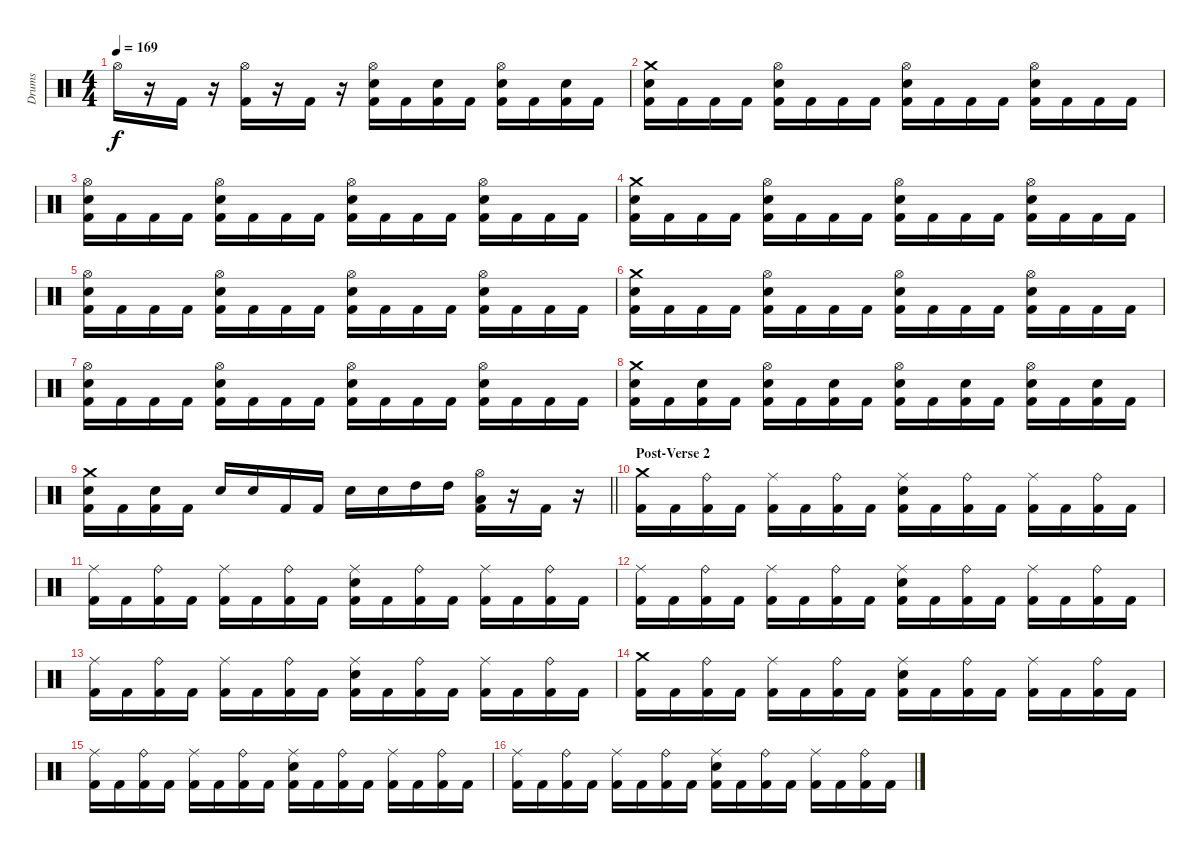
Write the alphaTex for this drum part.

\track ("Drums" "Drums") {instrument percussion}
\staff {score}
\articulation defaults
\ts (4 4)
\tempo 169
\clef neutral
\ks c "Hi-Hat (open)".16{dy f}
r.16 "Kick (hit) 2".16 r.16 ("Hi-Hat (open)" "Kick (hit) 2").16 r.16 "Kick (hit) 2".16 r.16 ("Hi-Hat (open)" "Snare (hit) 2" "Kick (hit) 2").16 "Kick (hit) 2".16 ("Snare (hit) 2" "Kick (hit) 2").16 "Kick (hit) 2".16 ("Hi-Hat (open)" "Snare (hit) 2" "Kick (hit) 2").16 "Kick (hit) 2".16 ("Snare (hit) 2" "Kick (hit) 2").16 "Kick (hit) 2".16 |
("Crash medium (hit)" "Snare (hit) 2" "Kick (hit) 2").16 "Kick (hit) 2".16 "Kick (hit) 2".16 "Kick (hit) 2".16 ("Hi-Hat (open)" "Snare (hit) 2" "Kick (hit) 2").16 "Kick (hit) 2".16 "Kick (hit) 2".16 "Kick (hit) 2".16 ("Hi-Hat (open)" "Snare (hit) 2" "Kick (hit) 2").16 "Kick (hit) 2".16 "Kick (hit) 2".16 "Kick (hit) 2".16 ("Hi-Hat (open)" "Snare (hit) 2" "Kick (hit) 2").16 "Kick (hit) 2".16 "Kick (hit) 2".16 "Kick (hit) 2".16 |
("Hi-Hat (open)" "Snare (hit) 2" "Kick (hit) 2").16 "Kick (hit) 2".16 "Kick (hit) 2".16 "Kick (hit) 2".16 ("Hi-Hat (open)" "Snare (hit) 2" "Kick (hit) 2").16 "Kick (hit) 2".16 "Kick (hit) 2".16 "Kick (hit) 2".16 ("Hi-Hat (open)" "Snare (hit) 2" "Kick (hit) 2").16 "Kick (hit) 2".16 "Kick (hit) 2".16 "Kick (hit) 2".16 ("Hi-Hat (open)" "Snare (hit) 2" "Kick (hit) 2").16 "Kick (hit) 2".16 "Kick (hit) 2".16 "Kick (hit) 2".16 |
("Crash medium (hit)" "Snare (hit) 2" "Kick (hit) 2").16 "Kick (hit) 2".16 "Kick (hit) 2".16 "Kick (hit) 2".16 ("Hi-Hat (open)" "Snare (hit) 2" "Kick (hit) 2").16 "Kick (hit) 2".16 "Kick (hit) 2".16 "Kick (hit) 2".16 ("Hi-Hat (open)" "Snare (hit) 2" "Kick (hit) 2").16 "Kick (hit) 2".16 "Kick (hit) 2".16 "Kick (hit) 2".16 ("Hi-Hat (open)" "Snare (hit) 2" "Kick (hit) 2").16 "Kick (hit) 2".16 "Kick (hit) 2".16 "Kick (hit) 2".16 |
("Hi-Hat (open)" "Snare (hit) 2" "Kick (hit) 2").16 "Kick (hit) 2".16 "Kick (hit) 2".16 "Kick (hit) 2".16 ("Hi-Hat (open)" "Snare (hit) 2" "Kick (hit) 2").16 "Kick (hit) 2".16 "Kick (hit) 2".16 "Kick (hit) 2".16 ("Hi-Hat (open)" "Snare (hit) 2" "Kick (hit) 2").16 "Kick (hit) 2".16 "Kick (hit) 2".16 "Kick (hit) 2".16 ("Hi-Hat (open)" "Snare (hit) 2" "Kick (hit) 2").16 "Kick (hit) 2".16 "Kick (hit) 2".16 "Kick (hit) 2".16 |
("Crash medium (hit)" "Snare (hit) 2" "Kick (hit) 2").16 "Kick (hit) 2".16 "Kick (hit) 2".16 "Kick (hit) 2".16 ("Hi-Hat (open)" "Snare (hit) 2" "Kick (hit) 2").16 "Kick (hit) 2".16 "Kick (hit) 2".16 "Kick (hit) 2".16 ("Hi-Hat (open)" "Snare (hit) 2" "Kick (hit) 2").16 "Kick (hit) 2".16 "Kick (hit) 2".16 "Kick (hit) 2".16 ("Hi-Hat (open)" "Snare (hit) 2" "Kick (hit) 2").16 "Kick (hit) 2".16 "Kick (hit) 2".16 "Kick (hit) 2".16 |
("Hi-Hat (open)" "Snare (hit) 2" "Kick (hit) 2").16 "Kick (hit) 2".16 "Kick (hit) 2".16 "Kick (hit) 2".16 ("Hi-Hat (open)" "Snare (hit) 2" "Kick (hit) 2").16 "Kick (hit) 2".16 "Kick (hit) 2".16 "Kick (hit) 2".16 ("Hi-Hat (open)" "Snare (hit) 2" "Kick (hit) 2").16 "Kick (hit) 2".16 "Kick (hit) 2".16 "Kick (hit) 2".16 ("Hi-Hat (open)" "Snare (hit) 2" "Kick (hit) 2").16 "Kick (hit) 2".16 "Kick (hit) 2".16 "Kick (hit) 2".16 |
("Crash medium (hit)" "Snare (hit) 2" "Kick (hit) 2").16 "Kick (hit) 2".16 ("Snare (hit) 2" "Kick (hit) 2").16 "Kick (hit) 2".16 ("Hi-Hat (open)" "Snare (hit) 2" "Kick (hit) 2").16 "Kick (hit) 2".16 ("Snare (hit) 2" "Kick (hit) 2").16 "Kick (hit) 2".16 ("Hi-Hat (open)" "Snare (hit) 2" "Kick (hit) 2").16 "Kick (hit) 2".16 ("Snare (hit) 2" "Kick (hit) 2").16 "Kick (hit) 2".16 ("Hi-Hat (open)" "Snare (hit) 2" "Kick (hit) 2").16 "Kick (hit) 2".16 ("Snare (hit) 2" "Kick (hit) 2").16 "Kick (hit) 2".16 |
\barLineRight lightlight
("Crash medium (hit)" "Snare (hit) 2" "Kick (hit) 2").16 "Kick (hit) 2".16 ("Snare (hit) 2" "Kick (hit) 2").16 "Kick (hit) 2".16 "Snare (hit) 2".16 "Snare (hit) 2".16 "Kick (hit) 2".16 "Kick (hit) 2".16 "Snare (hit) 2".16 "Snare (hit) 2".16 "High Tom (hit)".16 "High Tom (hit)".16 ("Hi-Hat (open)" "Low Tom (hit)" "Kick (hit) 2").16 r.16 "Kick (hit) 2".16 r.16 |
\section ("" "Post-Verse 2")
("Crash medium (hit)" "Kick (hit) 2").16 "Kick (hit) 2".16 ("Ride (bell)" "Kick (hit) 2").16 "Kick (hit) 2".16 ("Ride (middle)" "Kick (hit) 2").16 "Kick (hit) 2".16 ("Ride (bell)" "Kick (hit) 2").16 "Kick (hit) 2".16 ("Ride (middle)" "Snare (hit) 2" "Kick (hit) 2").16 "Kick (hit) 2".16 ("Ride (bell)" "Kick (hit) 2").16 "Kick (hit) 2".16 ("Ride (middle)" "Kick (hit) 2").16 "Kick (hit) 2".16 ("Ride (bell)" "Kick (hit) 2").16 "Kick (hit) 2".16 |
("Ride (middle)" "Kick (hit) 2").16 "Kick (hit) 2".16 ("Ride (bell)" "Kick (hit) 2").16 "Kick (hit) 2".16 ("Ride (middle)" "Kick (hit) 2").16 "Kick (hit) 2".16 ("Ride (bell)" "Kick (hit) 2").16 "Kick (hit) 2".16 ("Ride (middle)" "Snare (hit) 2" "Kick (hit) 2").16 "Kick (hit) 2".16 ("Ride (bell)" "Kick (hit) 2").16 "Kick (hit) 2".16 ("Ride (middle)" "Kick (hit) 2").16 "Kick (hit) 2".16 ("Ride (bell)" "Kick (hit) 2").16 "Kick (hit) 2".16 |
("Ride (middle)" "Kick (hit) 2").16 "Kick (hit) 2".16 ("Ride (bell)" "Kick (hit) 2").16 "Kick (hit) 2".16 ("Ride (middle)" "Kick (hit) 2").16 "Kick (hit) 2".16 ("Ride (bell)" "Kick (hit) 2").16 "Kick (hit) 2".16 ("Ride (middle)" "Snare (hit) 2" "Kick (hit) 2").16 "Kick (hit) 2".16 ("Ride (bell)" "Kick (hit) 2").16 "Kick (hit) 2".16 ("Ride (middle)" "Kick (hit) 2").16 "Kick (hit) 2".16 ("Ride (bell)" "Kick (hit) 2").16 "Kick (hit) 2".16 |
("Ride (middle)" "Kick (hit) 2").16 "Kick (hit) 2".16 ("Ride (bell)" "Kick (hit) 2").16 "Kick (hit) 2".16 ("Ride (middle)" "Kick (hit) 2").16 "Kick (hit) 2".16 ("Ride (bell)" "Kick (hit) 2").16 "Kick (hit) 2".16 ("Ride (middle)" "Snare (hit) 2" "Kick (hit) 2").16 "Kick (hit) 2".16 ("Ride (bell)" "Kick (hit) 2").16 "Kick (hit) 2".16 ("Ride (middle)" "Kick (hit) 2").16 "Kick (hit) 2".16 ("Ride (bell)" "Kick (hit) 2").16 "Kick (hit) 2".16 |
("Crash medium (hit)" "Kick (hit) 2").16 "Kick (hit) 2".16 ("Ride (bell)" "Kick (hit) 2").16 "Kick (hit) 2".16 ("Ride (middle)" "Kick (hit) 2").16 "Kick (hit) 2".16 ("Ride (bell)" "Kick (hit) 2").16 "Kick (hit) 2".16 ("Ride (middle)" "Snare (hit) 2" "Kick (hit) 2").16 "Kick (hit) 2".16 ("Ride (bell)" "Kick (hit) 2").16 "Kick (hit) 2".16 ("Ride (middle)" "Kick (hit) 2").16 "Kick (hit) 2".16 ("Ride (bell)" "Kick (hit) 2").16 "Kick (hit) 2".16 |
("Ride (middle)" "Kick (hit) 2").16 "Kick (hit) 2".16 ("Ride (bell)" "Kick (hit) 2").16 "Kick (hit) 2".16 ("Ride (middle)" "Kick (hit) 2").16 "Kick (hit) 2".16 ("Ride (bell)" "Kick (hit) 2").16 "Kick (hit) 2".16 ("Ride (middle)" "Snare (hit) 2" "Kick (hit) 2").16 "Kick (hit) 2".16 ("Ride (bell)" "Kick (hit) 2").16 "Kick (hit) 2".16 ("Ride (middle)" "Kick (hit) 2").16 "Kick (hit) 2".16 ("Ride (bell)" "Kick (hit) 2").16 "Kick (hit) 2".16 |
("Ride (middle)" "Kick (hit) 2").16 "Kick (hit) 2".16 ("Ride (bell)" "Kick (hit) 2").16 "Kick (hit) 2".16 ("Ride (middle)" "Kick (hit) 2").16 "Kick (hit) 2".16 ("Ride (bell)" "Kick (hit) 2").16 "Kick (hit) 2".16 ("Ride (middle)" "Snare (hit) 2" "Kick (hit) 2").16 "Kick (hit) 2".16 ("Ride (bell)" "Kick (hit) 2").16 "Kick (hit) 2".16 ("Ride (middle)" "Kick (hit) 2").16 "Kick (hit) 2".16 ("Ride (bell)" "Kick (hit) 2").16 "Kick (hit) 2".16
